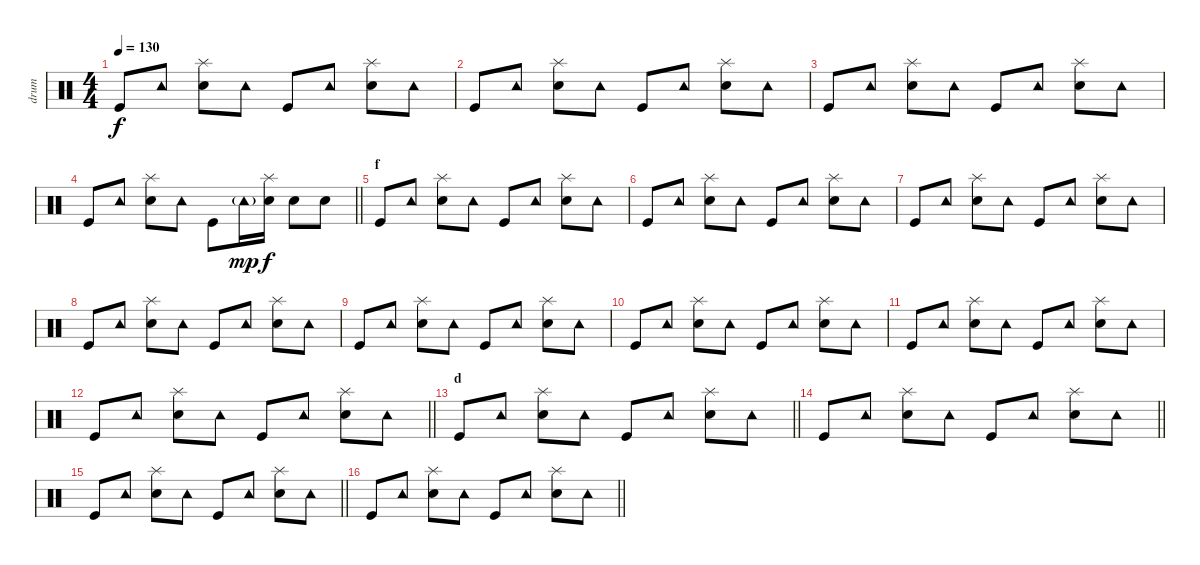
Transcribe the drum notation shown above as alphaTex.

\track ("drum" "drum") {instrument percussion}
\staff {score}
\articulation defaults
\ts (4 4)
\tempo 130
\clef neutral
\ks c "Kick (hit)".8{dy f} "Tambourine (hit)".8
("Snare (hit) 2" "Splash (hit)").8 "Tambourine (hit)".8 "Kick (hit)".8 "Tambourine (hit)".8 ("Snare (hit) 2" "Splash (hit)").8 "Tambourine (hit)".8 |
"Kick (hit)".8 "Tambourine (hit)".8 ("Snare (hit) 2" "Splash (hit)").8 "Tambourine (hit)".8 "Kick (hit)".8 "Tambourine (hit)".8 ("Snare (hit) 2" "Splash (hit)").8 "Tambourine (hit)".8 |
"Kick (hit)".8 "Tambourine (hit)".8 ("Snare (hit) 2" "Splash (hit)").8 "Tambourine (hit)".8 "Kick (hit)".8 "Tambourine (hit)".8 ("Snare (hit) 2" "Splash (hit)").8 "Tambourine (hit)".8 |
\barLineRight lightlight "Kick (hit)".8 "Tambourine (hit)".8
("Snare (hit) 2" "Splash (hit)").8 "Tambourine (hit)".8 "Kick (hit)".8 "Tambourine (hit)"{g}.16{dy mp} ("Snare (hit) 2" "Splash (hit)").16{dy f} "Snare (hit) 2".8 "Snare (hit) 2".8 |
\section ("" "f")
"Kick (hit)".8 "Tambourine (hit)".8 ("Snare (hit) 2" "Splash (hit)").8 "Tambourine (hit)".8 "Kick (hit)".8 "Tambourine (hit)".8 ("Snare (hit) 2" "Splash (hit)").8 "Tambourine (hit)".8 |
"Kick (hit)".8 "Tambourine (hit)".8 ("Snare (hit) 2" "Splash (hit)").8 "Tambourine (hit)".8 "Kick (hit)".8 "Tambourine (hit)".8 ("Snare (hit) 2" "Splash (hit)").8 "Tambourine (hit)".8 |
"Kick (hit)".8 "Tambourine (hit)".8 ("Snare (hit) 2" "Splash (hit)").8 "Tambourine (hit)".8 "Kick (hit)".8 "Tambourine (hit)".8 ("Snare (hit) 2" "Splash (hit)").8 "Tambourine (hit)".8 |
"Kick (hit)".8 "Tambourine (hit)".8 ("Snare (hit) 2" "Splash (hit)").8 "Tambourine (hit)".8 "Kick (hit)".8 "Tambourine (hit)".8 ("Snare (hit) 2" "Splash (hit)").8 "Tambourine (hit)".8 |
"Kick (hit)".8 "Tambourine (hit)".8 ("Snare (hit) 2" "Splash (hit)").8 "Tambourine (hit)".8 "Kick (hit)".8 "Tambourine (hit)".8 ("Snare (hit) 2" "Splash (hit)").8 "Tambourine (hit)".8 |
"Kick (hit)".8 "Tambourine (hit)".8 ("Snare (hit) 2" "Splash (hit)").8 "Tambourine (hit)".8 "Kick (hit)".8 "Tambourine (hit)".8 ("Snare (hit) 2" "Splash (hit)").8 "Tambourine (hit)".8 |
"Kick (hit)".8 "Tambourine (hit)".8 ("Snare (hit) 2" "Splash (hit)").8 "Tambourine (hit)".8 "Kick (hit)".8 "Tambourine (hit)".8 ("Snare (hit) 2" "Splash (hit)").8 "Tambourine (hit)".8 |
\barLineRight lightlight "Kick (hit)".8 "Tambourine (hit)".8
("Snare (hit) 2" "Splash (hit)").8 "Tambourine (hit)".8 "Kick (hit)".8 "Tambourine (hit)".8 ("Snare (hit) 2" "Splash (hit)").8 "Tambourine (hit)".8 |
\section ("" "d")
\barLineRight lightlight "Kick (hit)".8 "Tambourine (hit)".8
("Snare (hit) 2" "Splash (hit)").8 "Tambourine (hit)".8 "Kick (hit)".8 "Tambourine (hit)".8 ("Snare (hit) 2" "Splash (hit)").8 "Tambourine (hit)".8 |
\barLineRight lightlight "Kick (hit)".8 "Tambourine (hit)".8
("Snare (hit) 2" "Splash (hit)").8 "Tambourine (hit)".8 "Kick (hit)".8 "Tambourine (hit)".8 ("Snare (hit) 2" "Splash (hit)").8 "Tambourine (hit)".8 |
\barLineRight lightlight "Kick (hit)".8 "Tambourine (hit)".8
("Snare (hit) 2" "Splash (hit)").8 "Tambourine (hit)".8 "Kick (hit)".8 "Tambourine (hit)".8 ("Snare (hit) 2" "Splash (hit)").8 "Tambourine (hit)".8 |
\barLineRight lightlight "Kick (hit)".8 "Tambourine (hit)".8
("Snare (hit) 2" "Splash (hit)").8 "Tambourine (hit)".8 "Kick (hit)".8 "Tambourine (hit)".8 ("Snare (hit) 2" "Splash (hit)").8 "Tambourine (hit)".8
